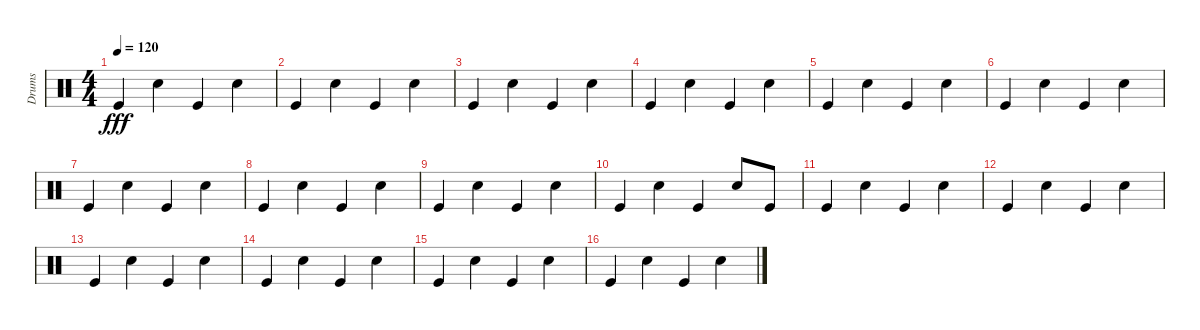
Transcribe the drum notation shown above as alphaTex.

\track ("Drums" "Drums") {instrument percussion}
\staff {score}
\articulation defaults
\ts (4 4)
\tempo 120
\clef neutral
\ks c "Kick (hit)".4{dy fff} "Snare (hit) 2".4 "Kick (hit)".4 "Snare (hit) 2".4
|
"Kick (hit)".4 "Snare (hit) 2".4 "Kick (hit)".4 "Snare (hit) 2".4 |
"Kick (hit)".4 "Snare (hit) 2".4 "Kick (hit)".4 "Snare (hit) 2".4 |
"Kick (hit)".4 "Snare (hit) 2".4 "Kick (hit)".4 "Snare (hit) 2".4 |
"Kick (hit)".4 "Snare (hit) 2".4 "Kick (hit)".4 "Snare (hit) 2".4 |
"Kick (hit)".4 "Snare (hit) 2".4 "Kick (hit)".4 "Snare (hit) 2".4 |
"Kick (hit)".4 "Snare (hit) 2".4 "Kick (hit)".4 "Snare (hit) 2".4 |
"Kick (hit)".4 "Snare (hit) 2".4 "Kick (hit)".4 "Snare (hit) 2".4 |
"Kick (hit)".4 "Snare (hit) 2".4 "Kick (hit)".4 "Snare (hit) 2".4 |
"Kick (hit)".4 "Snare (hit) 2".4 "Kick (hit)".4 "Snare (hit) 2".8 "Kick (hit)".8 |
"Kick (hit)".4 "Snare (hit) 2".4 "Kick (hit)".4 "Snare (hit) 2".4 |
"Kick (hit)".4 "Snare (hit) 2".4 "Kick (hit)".4 "Snare (hit) 2".4 |
"Kick (hit)".4 "Snare (hit) 2".4 "Kick (hit)".4 "Snare (hit) 2".4 |
"Kick (hit)".4 "Snare (hit) 2".4 "Kick (hit)".4 "Snare (hit) 2".4 |
"Kick (hit)".4 "Snare (hit) 2".4 "Kick (hit)".4 "Snare (hit) 2".4 |
"Kick (hit)".4 "Snare (hit) 2".4 "Kick (hit)".4 "Snare (hit) 2".4
